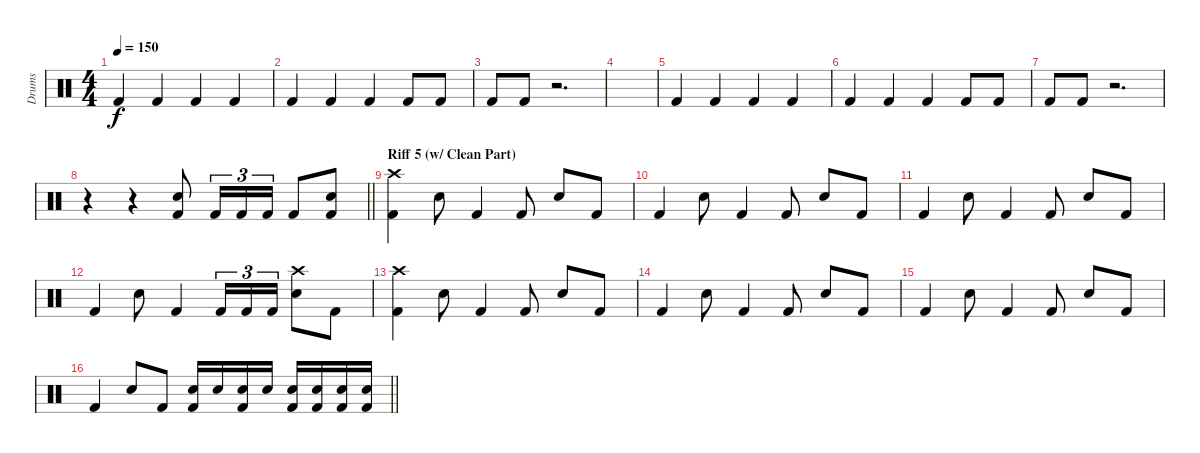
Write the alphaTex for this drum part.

\track ("Drums" "Drums") {instrument percussion}
\staff {score}
\articulation defaults
\ts (4 4)
\tempo 150
\clef neutral
\ks c "Kick (hit) 2".4{dy f} "Kick (hit) 2".4 "Kick (hit) 2".4 "Kick (hit) 2".4
|
"Kick (hit) 2".4 "Kick (hit) 2".4 "Kick (hit) 2".4 "Kick (hit) 2".8 "Kick (hit) 2".8 |
"Kick (hit) 2".8 "Kick (hit) 2".8 r.2{d} |
|
"Kick (hit) 2".4 "Kick (hit) 2".4 "Kick (hit) 2".4 "Kick (hit) 2".4 |
"Kick (hit) 2".4 "Kick (hit) 2".4 "Kick (hit) 2".4 "Kick (hit) 2".8 "Kick (hit) 2".8 |
"Kick (hit) 2".8 "Kick (hit) 2".8 r.2{d} |
\barLineRight lightlight
r.4 r.4 ("Snare (hit) 2" "Kick (hit) 2").8 "Kick (hit) 2".16{tu (3 2)} "Kick (hit) 2".16{tu (3 2)} "Kick (hit) 2".16{tu (3 2)} "Kick (hit) 2".8 ("Snare (hit) 2" "Kick (hit) 2").8 |
\section ("" "Riff 5 (w/ Clean Part)")
("Crash high (hit)" "Kick (hit) 2").4 "Snare (hit) 2".8 "Kick (hit) 2".4 "Kick (hit) 2".8 "Snare (hit) 2".8 "Kick (hit) 2".8 |
"Kick (hit) 2".4 "Snare (hit) 2".8 "Kick (hit) 2".4 "Kick (hit) 2".8 "Snare (hit) 2".8 "Kick (hit) 2".8 |
"Kick (hit) 2".4 "Snare (hit) 2".8 "Kick (hit) 2".4 "Kick (hit) 2".8 "Snare (hit) 2".8 "Kick (hit) 2".8 |
"Kick (hit) 2".4 "Snare (hit) 2".8 "Kick (hit) 2".4 "Kick (hit) 2".16{tu (3 2)} "Kick (hit) 2".16{tu (3 2)} "Kick (hit) 2".16{tu (3 2)} ("Crash high (hit)" "Snare (hit) 2").8 "Kick (hit) 2".8 |
("Crash high (hit)" "Kick (hit) 2").4 "Snare (hit) 2".8 "Kick (hit) 2".4 "Kick (hit) 2".8 "Snare (hit) 2".8 "Kick (hit) 2".8 |
"Kick (hit) 2".4 "Snare (hit) 2".8 "Kick (hit) 2".4 "Kick (hit) 2".8 "Snare (hit) 2".8 "Kick (hit) 2".8 |
"Kick (hit) 2".4 "Snare (hit) 2".8 "Kick (hit) 2".4 "Kick (hit) 2".8 "Snare (hit) 2".8 "Kick (hit) 2".8 |
\barLineRight lightlight "Kick (hit) 2".4 "Snare (hit) 2".8 "Kick (hit) 2".8
("Snare (hit) 2" "Kick (hit) 2").16 "Snare (hit) 2".16 ("Snare (hit) 2" "Kick (hit) 2").16 "Snare (hit) 2".16 ("Snare (hit) 2" "Kick (hit) 2").16 ("Snare (hit) 2" "Kick (hit) 2").16 ("Snare (hit) 2" "Kick (hit) 2").16 ("Snare (hit) 2" "Kick (hit) 2").16
